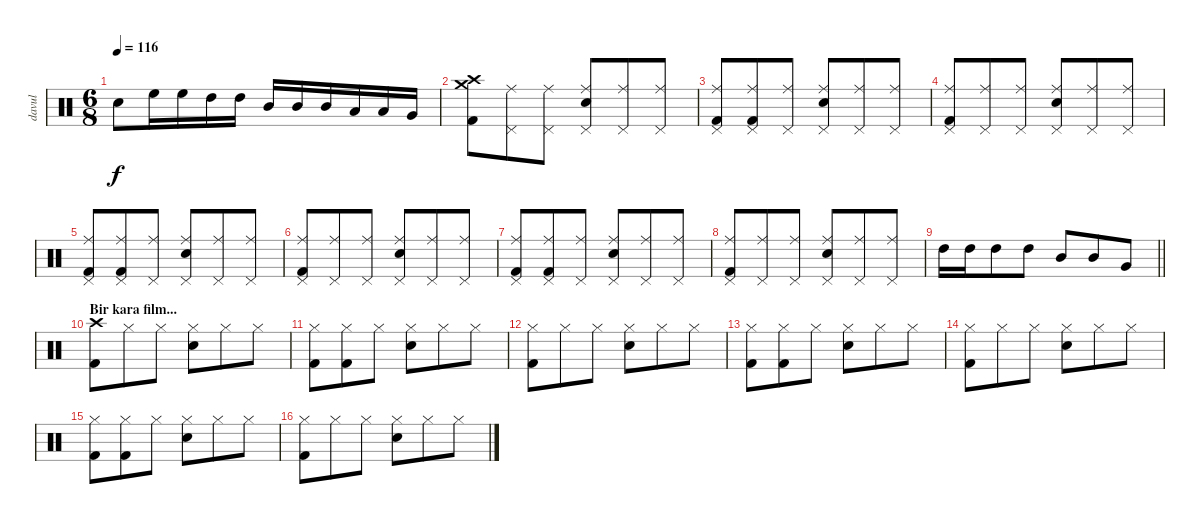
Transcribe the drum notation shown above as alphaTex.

\track ("davul" "davul") {instrument percussion}
\staff {score}
\articulation defaults
\ts (6 8)
\tempo 116
\clef neutral
\ks c "Snare (hit) 2".8{dy f} "High Floor Tom (hit)".16 "High Floor Tom (hit)".16 "High Tom (hit)".16 "High Tom (hit)".16 "Mid Tom (hit)".16 "Mid Tom (hit)".16 "Mid Tom (hit)".16 "Low Tom (hit)".16 "Low Tom (hit)".16 "Very Low Tom (hit)".16
|
("Crash high (hit)" "Crash medium (hit)" "Kick (hit) 2").8 ("Ride (middle)" "Pedal Hi-Hat (hit)").8 ("Ride (middle)" "Pedal Hi-Hat (hit)").8 ("Ride (middle)" "Electric Snare (hit)" "Pedal Hi-Hat (hit)").8 ("Ride (middle)" "Pedal Hi-Hat (hit)").8 ("Ride (middle)" "Pedal Hi-Hat (hit)").8 |
("Ride (middle)" "Kick (hit) 2" "Pedal Hi-Hat (hit)").8 ("Ride (middle)" "Kick (hit) 2" "Pedal Hi-Hat (hit)").8 ("Ride (middle)" "Pedal Hi-Hat (hit)").8 ("Ride (middle)" "Electric Snare (hit)" "Pedal Hi-Hat (hit)").8 ("Ride (middle)" "Pedal Hi-Hat (hit)").8 ("Ride (middle)" "Pedal Hi-Hat (hit)").8 |
("Ride (middle)" "Kick (hit) 2" "Pedal Hi-Hat (hit)").8 ("Ride (middle)" "Pedal Hi-Hat (hit)").8 ("Ride (middle)" "Pedal Hi-Hat (hit)").8 ("Ride (middle)" "Electric Snare (hit)" "Pedal Hi-Hat (hit)").8 ("Ride (middle)" "Pedal Hi-Hat (hit)").8 ("Ride (middle)" "Pedal Hi-Hat (hit)").8 |
("Ride (middle)" "Kick (hit) 2" "Pedal Hi-Hat (hit)").8 ("Ride (middle)" "Kick (hit) 2" "Pedal Hi-Hat (hit)").8 ("Ride (middle)" "Pedal Hi-Hat (hit)").8 ("Ride (middle)" "Electric Snare (hit)" "Pedal Hi-Hat (hit)").8 ("Ride (middle)" "Pedal Hi-Hat (hit)").8 ("Ride (middle)" "Pedal Hi-Hat (hit)").8 |
("Ride (middle)" "Kick (hit) 2" "Pedal Hi-Hat (hit)").8 ("Ride (middle)" "Pedal Hi-Hat (hit)").8 ("Ride (middle)" "Pedal Hi-Hat (hit)").8 ("Ride (middle)" "Electric Snare (hit)" "Pedal Hi-Hat (hit)").8 ("Ride (middle)" "Pedal Hi-Hat (hit)").8 ("Ride (middle)" "Pedal Hi-Hat (hit)").8 |
("Ride (middle)" "Kick (hit) 2" "Pedal Hi-Hat (hit)").8 ("Ride (middle)" "Kick (hit) 2" "Pedal Hi-Hat (hit)").8 ("Ride (middle)" "Pedal Hi-Hat (hit)").8 ("Ride (middle)" "Electric Snare (hit)" "Pedal Hi-Hat (hit)").8 ("Ride (middle)" "Pedal Hi-Hat (hit)").8 ("Ride (middle)" "Pedal Hi-Hat (hit)").8 |
("Ride (middle)" "Kick (hit) 2" "Pedal Hi-Hat (hit)").8 ("Ride (middle)" "Pedal Hi-Hat (hit)").8 ("Ride (middle)" "Pedal Hi-Hat (hit)").8 ("Ride (middle)" "Electric Snare (hit)" "Pedal Hi-Hat (hit)").8 ("Ride (middle)" "Pedal Hi-Hat (hit)").8 ("Ride (middle)" "Pedal Hi-Hat (hit)").8 |
\barLineRight lightlight "High Tom (hit)".16 "High Tom (hit)".16 "High Tom (hit)".8 "High Tom (hit)".8 "Mid Tom (hit)".8 "Mid Tom (hit)".8 "Very Low Tom (hit)".8
|
\section ("" "Bir kara film...")
("Crash high (hit)" "Kick (hit) 2").8 "Hi-Hat (closed)".8 "Hi-Hat (closed)".8 ("Hi-Hat (closed)" "Electric Snare (hit)").8 "Hi-Hat (closed)".8 "Hi-Hat (closed)".8 |
("Hi-Hat (closed)" "Kick (hit) 2").8 ("Hi-Hat (closed)" "Kick (hit) 2").8 "Hi-Hat (closed)".8 ("Hi-Hat (closed)" "Electric Snare (hit)").8 "Hi-Hat (closed)".8 "Hi-Hat (closed)".8 |
("Hi-Hat (closed)" "Kick (hit) 2").8 "Hi-Hat (closed)".8 "Hi-Hat (closed)".8 ("Hi-Hat (closed)" "Electric Snare (hit)").8 "Hi-Hat (closed)".8 "Hi-Hat (closed)".8 |
("Hi-Hat (closed)" "Kick (hit) 2").8 ("Hi-Hat (closed)" "Kick (hit) 2").8 "Hi-Hat (closed)".8 ("Hi-Hat (closed)" "Electric Snare (hit)").8 "Hi-Hat (closed)".8 "Hi-Hat (closed)".8 |
("Hi-Hat (closed)" "Kick (hit) 2").8 "Hi-Hat (closed)".8 "Hi-Hat (closed)".8 ("Hi-Hat (closed)" "Electric Snare (hit)").8 "Hi-Hat (closed)".8 "Hi-Hat (closed)".8 |
("Hi-Hat (closed)" "Kick (hit) 2").8 ("Hi-Hat (closed)" "Kick (hit) 2").8 "Hi-Hat (closed)".8 ("Hi-Hat (closed)" "Electric Snare (hit)").8 "Hi-Hat (closed)".8 "Hi-Hat (closed)".8 |
("Hi-Hat (closed)" "Kick (hit) 2").8 "Hi-Hat (closed)".8 "Hi-Hat (closed)".8 ("Hi-Hat (closed)" "Electric Snare (hit)").8 "Hi-Hat (closed)".8 "Hi-Hat (closed)".8
